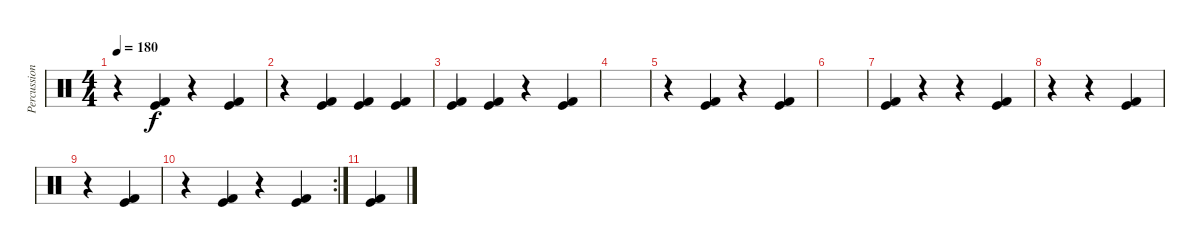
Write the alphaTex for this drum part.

\track ("Percussion" "Percussion") {instrument percussion}
\staff {score}
\articulation defaults
\ts (4 4)
\tempo 180
\clef neutral
\ks c
r.4{dy f} ("Kick (hit) 2" "Kick (hit)").4 r.4 ("Kick (hit) 2" "Kick (hit)").4 |
r.4 ("Kick (hit) 2" "Kick (hit)").4 ("Kick (hit) 2" "Kick (hit)").4 ("Kick (hit) 2" "Kick (hit)").4 |
("Kick (hit) 2" "Kick (hit)").4 ("Kick (hit) 2" "Kick (hit)").4 r.4 ("Kick (hit) 2" "Kick (hit)").4 |
|
r.4 ("Kick (hit) 2" "Kick (hit)").4 r.4 ("Kick (hit) 2" "Kick (hit)").4 |
|
("Kick (hit) 2" "Kick (hit)").4 r.4 r.4 ("Kick (hit) 2" "Kick (hit)").4 |
r.4 r.4 ("Kick (hit) 2" "Kick (hit)").4 |
r.4 ("Kick (hit) 2" "Kick (hit)").4 |
\rc 2
r.4 ("Kick (hit) 2" "Kick (hit)").4 r.4 ("Kick (hit) 2" "Kick (hit)").4 |
("Kick (hit) 2" "Kick (hit)").4
